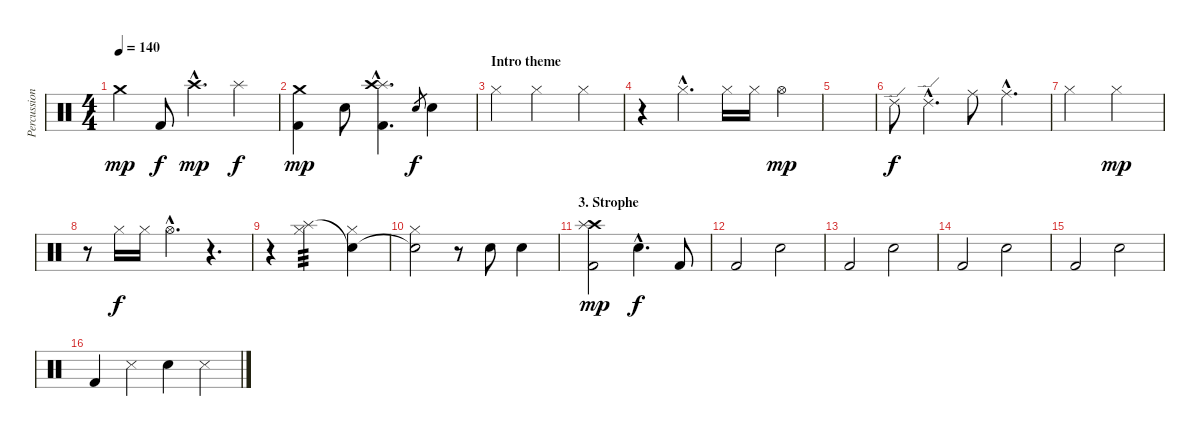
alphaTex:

\track ("Percussion" "Percussion") {instrument percussion}
\staff {score}
\articulation defaults
\ts (4 4)
\tempo 140
\clef neutral
\ks c "Crash medium (hit)".4{dy mp} "Kick (hit) 2".8{dy f} "Crash high (hit)"{hac}.4{d dy mp} "Splash (hit)".4{dy f}
|
("Crash medium (hit)" "Kick (hit) 2").4{dy mp} "Electric Snare (hit)".8 ("Splash (hit)"{hac} "Crash high (hit)"{hac} "Kick (hit) 2"{hac}).4{d} "Electric Snare (hit)".8{gr dy f} "Electric Snare (hit)".4 |
\section ("" "Intro theme")
"Hi-Hat (closed)".4 "Hi-Hat (closed)".2 "Hi-Hat (closed)".4 |
r.4 "Hi-Hat (closed)"{hac}.4{d} "Hi-Hat (closed)".16 "Hi-Hat (closed)".16 "Hi-Hat (open)".4{dy mp} |
|
"Ride (edge) 2".8{dy f} "Ride (edge) 2"{hac}.4{d} "Ride (middle)".8 "Ride (middle)"{hac}.4{d} |
"Hi-Hat (closed)".2 "Hi-Hat (closed)".2{dy mp} |
r.8 "Hi-Hat (closed)".16{dy f} "Hi-Hat (closed)".16 "Hi-Hat (open)"{hac}.4{d} r.4{d} |
r.4 ("Splash (hit)" "Hi-Hat (closed)").2{tp 3} ("Snare (hit)"{t} "Hi-Hat (closed)").4 |
("Snare (hit)"{t} "Hi-Hat (closed)").2 r.8 "Electric Snare (hit)".8 "Electric Snare (hit)".4 |
\section ("" "3. Strophe")
("Crash high (hit)" "Splash (hit)" "Kick (hit) 2").2{dy mp} "Electric Snare (hit)"{hac}.4{d dy f} "Kick (hit) 2".8 |
"Kick (hit) 2".2 "Electric Snare (hit)".2 |
"Kick (hit) 2".2 "Electric Snare (hit)".2 |
"Kick (hit) 2".2 "Electric Snare (hit)".2 |
"Kick (hit) 2".2 "Electric Snare (hit)".2 |
"Kick (hit) 2".4 "Snare (side stick) 3".4 "Electric Snare (hit)".4 "Snare (side stick) 3".4
